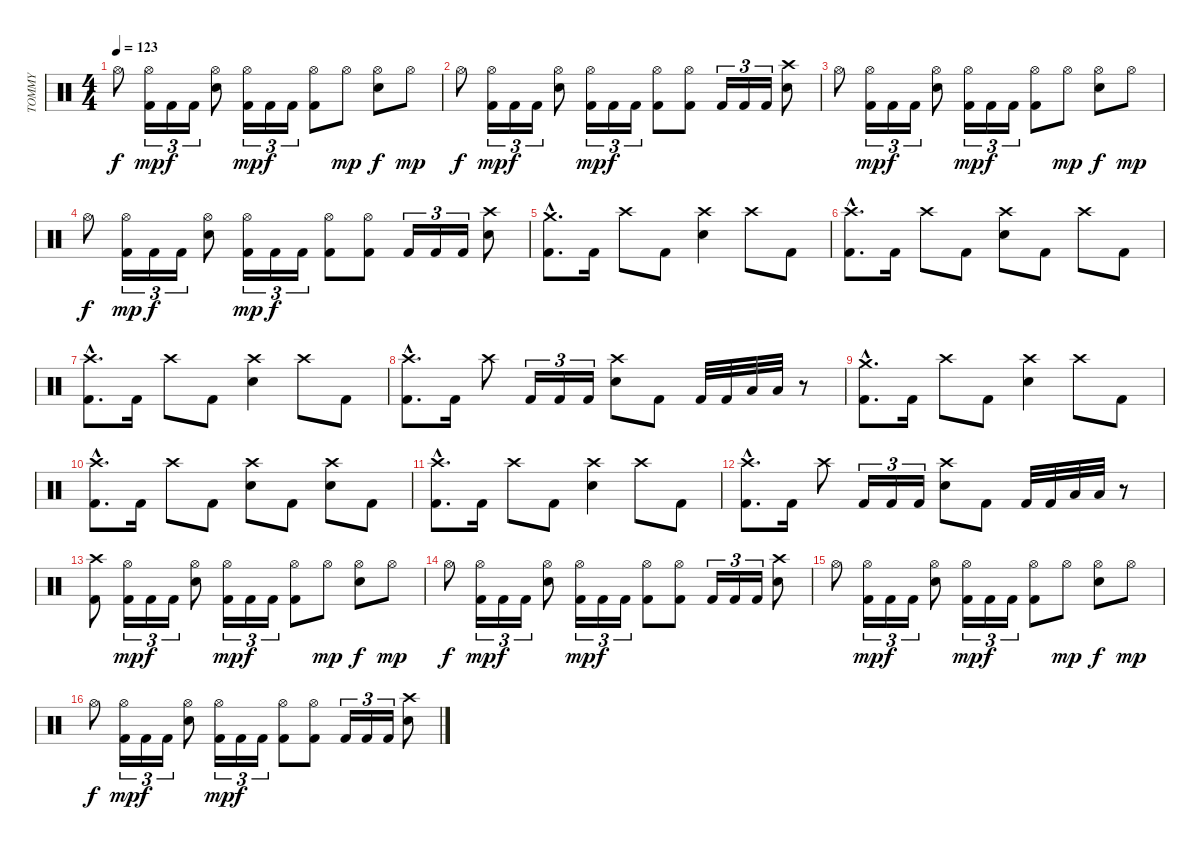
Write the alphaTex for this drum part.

\track ("TOMMY" "TOMMY") {instrument percussion}
\staff {score}
\articulation defaults
\ts (4 4)
\tempo 123
\clef neutral
\ks c "Hi-Hat (open)".8{dy f}
("Kick (hit) 2" "Hi-Hat (open)").16{tu (3 2) dy mp} "Kick (hit) 2".16{tu (3 2) dy f} "Kick (hit) 2".16{tu (3 2)} ("Snare (hit) 2" "Hi-Hat (open)").8 ("Kick (hit) 2" "Hi-Hat (open)").16{tu (3 2) dy mp} "Kick (hit) 2".16{tu (3 2) dy f} "Kick (hit) 2".16{tu (3 2)} ("Kick (hit) 2" "Hi-Hat (open)").8 "Hi-Hat (open)".8{dy mp} ("Snare (hit) 2" "Hi-Hat (open)").8{dy f} "Hi-Hat (open)".8{dy mp} |
"Hi-Hat (open)".8{dy f} ("Kick (hit) 2" "Hi-Hat (open)").16{tu (3 2) dy mp} "Kick (hit) 2".16{tu (3 2) dy f} "Kick (hit) 2".16{tu (3 2)} ("Snare (hit) 2" "Hi-Hat (open)").8 ("Kick (hit) 2" "Hi-Hat (open)").16{tu (3 2) dy mp} "Kick (hit) 2".16{tu (3 2) dy f} "Kick (hit) 2".16{tu (3 2)} ("Kick (hit) 2" "Hi-Hat (open)").8 ("Kick (hit) 2" "Hi-Hat (open)").8 "Kick (hit) 2".16{tu (3 2)} "Kick (hit) 2".16{tu (3 2)} "Kick (hit) 2".16{tu (3 2)} ("Snare (hit) 2" "Crash high (hit)").8 |
"Hi-Hat (open)".8 ("Kick (hit) 2" "Hi-Hat (open)").16{tu (3 2) dy mp} "Kick (hit) 2".16{tu (3 2) dy f} "Kick (hit) 2".16{tu (3 2)} ("Snare (hit) 2" "Hi-Hat (open)").8 ("Kick (hit) 2" "Hi-Hat (open)").16{tu (3 2) dy mp} "Kick (hit) 2".16{tu (3 2) dy f} "Kick (hit) 2".16{tu (3 2)} ("Kick (hit) 2" "Hi-Hat (open)").8 "Hi-Hat (open)".8{dy mp} ("Snare (hit) 2" "Hi-Hat (open)").8{dy f} "Hi-Hat (open)".8{dy mp} |
"Hi-Hat (open)".8{dy f} ("Kick (hit) 2" "Hi-Hat (open)").16{tu (3 2) dy mp} "Kick (hit) 2".16{tu (3 2) dy f} "Kick (hit) 2".16{tu (3 2)} ("Snare (hit) 2" "Hi-Hat (open)").8 ("Kick (hit) 2" "Hi-Hat (open)").16{tu (3 2) dy mp} "Kick (hit) 2".16{tu (3 2) dy f} "Kick (hit) 2".16{tu (3 2)} ("Kick (hit) 2" "Hi-Hat (open)").8 ("Kick (hit) 2" "Hi-Hat (open)").8 "Kick (hit) 2".16{tu (3 2)} "Kick (hit) 2".16{tu (3 2)} "Kick (hit) 2".16{tu (3 2)} ("Snare (hit) 2" "Crash high (hit)").8 |
("Kick (hit) 2"{hac} "Crash medium (hit)"{hac}).8{d} "Kick (hit) 2".16 "Crash high (hit)".8 "Kick (hit) 2".8 ("Snare (hit) 2" "Crash high (hit)").4 "Crash high (hit)".8 "Kick (hit) 2".8 |
("Kick (hit) 2"{hac} "Crash high (hit)"{hac}).8{d} "Kick (hit) 2".16 "Crash high (hit)".8 "Kick (hit) 2".8 ("Snare (hit) 2" "Crash high (hit)").8 "Kick (hit) 2".8 "Crash high (hit)".8 "Kick (hit) 2".8 |
("Kick (hit) 2"{hac} "Crash high (hit)"{hac}).8{d} "Kick (hit) 2".16 "Crash high (hit)".8 "Kick (hit) 2".8 ("Snare (hit) 2" "Crash high (hit)").4 "Crash high (hit)".8 "Kick (hit) 2".8 |
("Kick (hit) 2"{hac} "Crash high (hit)"{hac}).8{d} "Kick (hit) 2".16 "Crash high (hit)".8 "Kick (hit) 2".16{tu (3 2)} "Kick (hit) 2".16{tu (3 2)} "Kick (hit) 2".16{tu (3 2)} ("Snare (hit) 2" "Crash high (hit)").8 "Kick (hit) 2".8 "Kick (hit) 2".32 "Kick (hit) 2".32 "Low Floor Tom (hit)".32 "Low Floor Tom (hit)".32 r.8 |
("Kick (hit) 2"{hac} "Crash medium (hit)"{hac}).8{d} "Kick (hit) 2".16 "Crash high (hit)".8 "Kick (hit) 2".8 ("Snare (hit) 2" "Crash high (hit)").4 "Crash high (hit)".8 "Kick (hit) 2".8 |
("Kick (hit) 2"{hac} "Crash high (hit)"{hac}).8{d} "Kick (hit) 2".16 "Crash high (hit)".8 "Kick (hit) 2".8 ("Snare (hit) 2" "Crash high (hit)").8 "Kick (hit) 2".8 ("Snare (hit) 2" "Crash high (hit)").8 "Kick (hit) 2".8 |
("Kick (hit) 2"{hac} "Crash high (hit)"{hac}).8{d} "Kick (hit) 2".16 "Crash high (hit)".8 "Kick (hit) 2".8 ("Snare (hit) 2" "Crash high (hit)").4 "Crash high (hit)".8 "Kick (hit) 2".8 |
("Kick (hit) 2"{hac} "Crash high (hit)"{hac}).8{d} "Kick (hit) 2".16 "Crash high (hit)".8 "Kick (hit) 2".16{tu (3 2)} "Kick (hit) 2".16{tu (3 2)} "Kick (hit) 2".16{tu (3 2)} ("Snare (hit) 2" "Crash high (hit)").8 "Kick (hit) 2".8 "Kick (hit) 2".32 "Kick (hit) 2".32 "Low Floor Tom (hit)".32 "Low Floor Tom (hit)".32 r.8 |
("Kick (hit) 2" "Crash high (hit)").8 ("Kick (hit) 2" "Hi-Hat (open)").16{tu (3 2) dy mp} "Kick (hit) 2".16{tu (3 2) dy f} "Kick (hit) 2".16{tu (3 2)} ("Snare (hit) 2" "Hi-Hat (open)").8 ("Kick (hit) 2" "Hi-Hat (open)").16{tu (3 2) dy mp} "Kick (hit) 2".16{tu (3 2) dy f} "Kick (hit) 2".16{tu (3 2)} ("Kick (hit) 2" "Hi-Hat (open)").8 "Hi-Hat (open)".8{dy mp} ("Snare (hit) 2" "Hi-Hat (open)").8{dy f} "Hi-Hat (open)".8{dy mp} |
"Hi-Hat (open)".8{dy f} ("Kick (hit) 2" "Hi-Hat (open)").16{tu (3 2) dy mp} "Kick (hit) 2".16{tu (3 2) dy f} "Kick (hit) 2".16{tu (3 2)} ("Snare (hit) 2" "Hi-Hat (open)").8 ("Kick (hit) 2" "Hi-Hat (open)").16{tu (3 2) dy mp} "Kick (hit) 2".16{tu (3 2) dy f} "Kick (hit) 2".16{tu (3 2)} ("Kick (hit) 2" "Hi-Hat (open)").8 ("Kick (hit) 2" "Hi-Hat (open)").8 "Kick (hit) 2".16{tu (3 2)} "Kick (hit) 2".16{tu (3 2)} "Kick (hit) 2".16{tu (3 2)} ("Snare (hit) 2" "Crash high (hit)").8 |
"Hi-Hat (open)".8 ("Kick (hit) 2" "Hi-Hat (open)").16{tu (3 2) dy mp} "Kick (hit) 2".16{tu (3 2) dy f} "Kick (hit) 2".16{tu (3 2)} ("Snare (hit) 2" "Hi-Hat (open)").8 ("Kick (hit) 2" "Hi-Hat (open)").16{tu (3 2) dy mp} "Kick (hit) 2".16{tu (3 2) dy f} "Kick (hit) 2".16{tu (3 2)} ("Kick (hit) 2" "Hi-Hat (open)").8 "Hi-Hat (open)".8{dy mp} ("Snare (hit) 2" "Hi-Hat (open)").8{dy f} "Hi-Hat (open)".8{dy mp} |
"Hi-Hat (open)".8{dy f} ("Kick (hit) 2" "Hi-Hat (open)").16{tu (3 2) dy mp} "Kick (hit) 2".16{tu (3 2) dy f} "Kick (hit) 2".16{tu (3 2)} ("Snare (hit) 2" "Hi-Hat (open)").8 ("Kick (hit) 2" "Hi-Hat (open)").16{tu (3 2) dy mp} "Kick (hit) 2".16{tu (3 2) dy f} "Kick (hit) 2".16{tu (3 2)} ("Kick (hit) 2" "Hi-Hat (open)").8 ("Kick (hit) 2" "Hi-Hat (open)").8 "Kick (hit) 2".16{tu (3 2)} "Kick (hit) 2".16{tu (3 2)} "Kick (hit) 2".16{tu (3 2)} ("Snare (hit) 2" "Crash high (hit)").8
